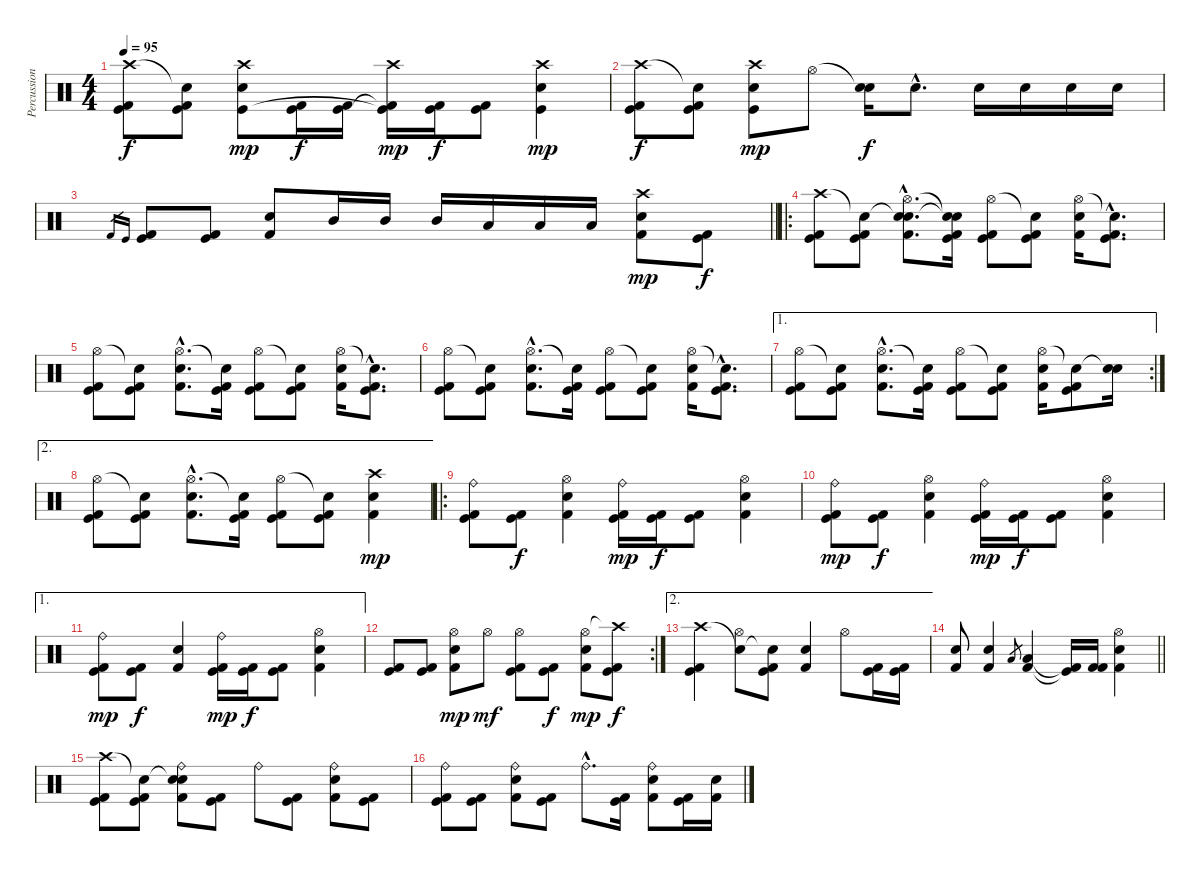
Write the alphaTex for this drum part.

\track ("Percussion" "Percussion") {instrument percussion}
\staff {score}
\articulation defaults
\ts (4 4)
\tempo 95
\clef neutral
\ks c
("Crash high (hit)" "Kick (hit) 2" "Kick (hit)").8{dy f} ("Snare (hit)"{t} "Kick (hit) 2" "Kick (hit)").8 ("Crash high (hit)" "Snare (hit) 2" "Kick (hit)").8{dy mp} ("Kick (hit) 2" "Kick (hit)").16{dy f} ("Kick (hit) 2" "Kick (hit)").16 ("Crash high (hit)" "Kick (hit) 2"{t} "Kick (hit)"{t}).16{dy mp} ("Kick (hit) 2" "Kick (hit)").16{dy f} ("Kick (hit)" "Kick (hit) 2").8 ("Crash high (hit)" "Snare (hit) 2" "Kick (hit)").4{dy mp} |
("Crash high (hit)" "Kick (hit) 2" "Kick (hit)").8{dy f} ("Snare (hit)"{t} "Kick (hit) 2" "Kick (hit)").8 ("Crash high (hit)" "Snare (hit) 2" "Kick (hit)").8{dy mp} "Hi-Hat (open)".8 ("Snare (hit)"{t} "Snare (hit) 2").16{dy f} "Snare (hit) 2"{hac}.8{d} "Snare (hit) 2".16 "Snare (hit) 2".16 "Snare (hit) 2".16 "Snare (hit) 2".16 |
\barLineRight lightlight "Kick (hit) 2".16{gr} "Kick (hit)".16{gr}
("Kick (hit) 2" "Kick (hit)").8 ("Kick (hit) 2" "Kick (hit)").8 ("Snare (hit) 2" "Kick (hit) 2").8 "Mid Tom (hit)".16 "Mid Tom (hit)".16 "Mid Tom (hit)".16 "Low Tom (hit)".16 "Low Tom (hit)".16 "Low Tom (hit)".16 ("Crash high (hit)" "Snare (hit) 2" "Kick (hit) 2").8{dy mp} ("Kick (hit)" "Kick (hit) 2").8{dy f} |
\ro
("Crash high (hit)" "Kick (hit) 2" "Kick (hit)").8 ("Snare (hit)"{t} "Kick (hit) 2" "Kick (hit)").8 ("Snare (hit)"{hac t} "Hi-Hat (open)"{hac} "Snare (hit) 2"{hac} "Kick (hit) 2"{hac}).8{d} ("Snare (hit)"{t} "Snare (hit)"{t} "Kick (hit) 2" "Kick (hit)").16 ("Hi-Hat (open)" "Kick (hit) 2" "Kick (hit)").8 ("Snare (hit)"{t} "Kick (hit)" "Kick (hit) 2").8 ("Hi-Hat (open)" "Snare (hit) 2" "Kick (hit) 2").16 ("Snare (hit)"{hac t} "Kick (hit) 2"{hac} "Kick (hit)"{hac}).8{d} |
("Hi-Hat (open)" "Kick (hit) 2" "Kick (hit)").8 ("Snare (hit)"{t} "Kick (hit) 2" "Kick (hit)").8 ("Hi-Hat (open)"{hac} "Snare (hit) 2"{hac} "Kick (hit) 2"{hac}).8{d} ("Snare (hit)"{t} "Kick (hit) 2" "Kick (hit)").16 ("Hi-Hat (open)" "Kick (hit) 2" "Kick (hit)").8 ("Snare (hit)"{t} "Kick (hit)" "Kick (hit) 2").8 ("Hi-Hat (open)" "Snare (hit) 2" "Kick (hit) 2").16 ("Snare (hit)"{hac t} "Kick (hit) 2"{hac} "Kick (hit)"{hac}).8{d} |
("Hi-Hat (open)" "Kick (hit) 2" "Kick (hit)").8 ("Snare (hit)"{t} "Kick (hit) 2" "Kick (hit)").8 ("Hi-Hat (open)"{hac} "Snare (hit) 2"{hac} "Kick (hit) 2"{hac}).8{d} ("Snare (hit)"{t} "Kick (hit) 2" "Kick (hit)").16 ("Hi-Hat (open)" "Kick (hit) 2" "Kick (hit)").8 ("Snare (hit)"{t} "Kick (hit)" "Kick (hit) 2").8 ("Hi-Hat (open)" "Snare (hit) 2" "Kick (hit) 2").16 ("Snare (hit)"{hac t} "Kick (hit) 2"{hac} "Kick (hit)"{hac}).8{d} |
\ae 1
\rc 2
("Hi-Hat (open)" "Kick (hit) 2" "Kick (hit)").8 ("Snare (hit)"{t} "Kick (hit) 2" "Kick (hit)").8 ("Hi-Hat (open)"{hac} "Snare (hit) 2"{hac} "Kick (hit) 2"{hac}).8{d} ("Snare (hit)"{t} "Kick (hit) 2" "Kick (hit)").16 ("Hi-Hat (open)" "Kick (hit) 2" "Kick (hit)").8 ("Snare (hit)"{t} "Kick (hit)" "Kick (hit) 2").8 ("Hi-Hat (open)" "Snare (hit) 2" "Kick (hit) 2").16 ("Snare (hit)"{t} "Kick (hit) 2" "Kick (hit)").8 ("Snare (hit)"{t} "Snare (hit) 2").16 |
\ae 2
("Hi-Hat (open)" "Kick (hit) 2" "Kick (hit)").8 ("Snare (hit)"{t} "Kick (hit) 2" "Kick (hit)").8 ("Hi-Hat (open)"{hac} "Snare (hit) 2"{hac} "Kick (hit) 2"{hac}).8{d} ("Snare (hit)"{t} "Kick (hit) 2" "Kick (hit)").16 ("Hi-Hat (open)" "Kick (hit) 2" "Kick (hit)").8 ("Snare (hit)"{t} "Kick (hit)" "Kick (hit) 2").8 ("Crash high (hit)" "Snare (hit) 2" "Kick (hit) 2").4{dy mp} |
\ro
("Ride (bell)" "Kick (hit) 2" "Kick (hit)").8 ("Kick (hit) 2" "Kick (hit)").8{dy f} ("Hi-Hat (open)" "Snare (hit) 2" "Kick (hit) 2").4 ("Ride (bell)" "Kick (hit) 2" "Kick (hit)").16{dy mp} ("Kick (hit) 2" "Kick (hit)").16{dy f} ("Kick (hit) 2" "Kick (hit)").8 ("Hi-Hat (open)" "Snare (hit) 2" "Kick (hit) 2").4 |
("Ride (bell)" "Kick (hit) 2" "Kick (hit)").8{dy mp} ("Kick (hit) 2" "Kick (hit)").8{dy f} ("Hi-Hat (open)" "Snare (hit) 2" "Kick (hit) 2").4 ("Ride (bell)" "Kick (hit) 2" "Kick (hit)").16{dy mp} ("Kick (hit) 2" "Kick (hit)").16{dy f} ("Kick (hit) 2" "Kick (hit)").8 ("Hi-Hat (open)" "Snare (hit) 2" "Kick (hit) 2").4 |
\ae 1
("Ride (bell)" "Kick (hit) 2" "Kick (hit)").8{dy mp} ("Kick (hit) 2" "Kick (hit)").8{dy f} ("Snare (hit) 2" "Kick (hit) 2").4 ("Ride (bell)" "Kick (hit) 2" "Kick (hit)").16{dy mp} ("Kick (hit) 2" "Kick (hit)").16{dy f} ("Kick (hit) 2" "Kick (hit)").8 ("Hi-Hat (open)" "Snare (hit) 2" "Kick (hit) 2").4 |
\rc 2
("Kick (hit) 2" "Kick (hit)").8 ("Kick (hit) 2" "Kick (hit)").8 ("Hi-Hat (open)" "Snare (hit) 2" "Kick (hit) 2").8{dy mp} "Hi-Hat (open)".8{dy mf} ("Hi-Hat (open)" "Kick (hit) 2" "Kick (hit)").8 ("Kick (hit) 2" "Kick (hit)").8{dy f} ("Hi-Hat (open)" "Snare (hit) 2" "Kick (hit) 2").8{dy mp} ("Crash high (hit)"{t} "Kick (hit) 2" "Kick (hit)").8{dy f} |
\ae 2
("Crash high (hit)" "Kick (hit) 2" "Kick (hit)").4 ("Snare (hit)"{t} "Hi-Hat (open)").8 ("Snare (hit)"{t} "Kick (hit) 2" "Kick (hit)").8 ("Snare (hit) 2" "Kick (hit) 2").4 "Hi-Hat (open)".8 ("Kick (hit) 2" "Kick (hit)").16 ("Kick (hit) 2" "Kick (hit)").16 |
\barLineRight lightlight
("Snare (hit) 2" "Kick (hit) 2").8 ("Snare (hit) 2" "Kick (hit) 2").4 "Low Tom (hit)".8{gr} ("Low Tom (hit)" "Kick (hit) 2").4 ("Kick (hit) 2"{t} "Kick (hit)"{t}).16 ("Kick (hit) 2" "Kick (hit) 2").16 ("Hi-Hat (open)" "Snare (hit) 2" "Kick (hit) 2").4 |
("Crash high (hit)" "Kick (hit) 2" "Kick (hit)").8 ("Snare (hit)"{t} "Kick (hit)" "Kick (hit) 2").8 ("Snare (hit)"{t} "Ride (bell)" "Snare (hit) 2" "Kick (hit) 2").8 ("Kick (hit) 2" "Kick (hit)").8 "Ride (bell)".8 ("Kick (hit) 2" "Kick (hit)").8 ("Ride (bell)" "Snare (hit) 2" "Kick (hit) 2").8 ("Kick (hit) 2" "Kick (hit)").8 |
("Ride (bell)" "Kick (hit) 2" "Kick (hit)").8 ("Kick (hit)" "Kick (hit) 2").8 ("Ride (bell)" "Snare (hit) 2" "Kick (hit) 2").8 ("Kick (hit) 2" "Kick (hit)").8 "Ride (bell)"{hac}.8{d} ("Kick (hit) 2" "Kick (hit)").16 ("Ride (bell)" "Snare (hit) 2" "Kick (hit) 2").8 ("Kick (hit) 2" "Kick (hit)").16 ("Snare (hit) 2" "Kick (hit) 2").16
